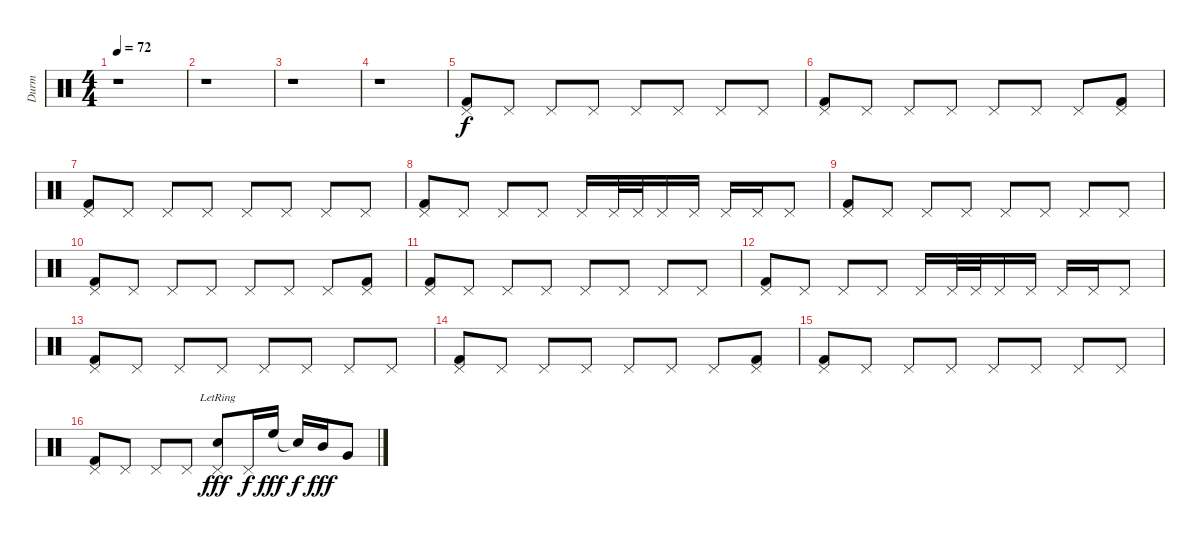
\track ("Durm" "Durm") {instrument percussion}
\staff {score}
\articulation defaults
\ts (4 4)
\tempo 72
\clef neutral
\ks c
r.1{dy f} |
r.1 |
r.1 |
r.1 |
("Pedal Hi-Hat (hit)" "Kick (hit) 2").8 "Pedal Hi-Hat (hit)".8 "Pedal Hi-Hat (hit)".8 "Pedal Hi-Hat (hit)".8 "Pedal Hi-Hat (hit)".8 "Pedal Hi-Hat (hit)".8 "Pedal Hi-Hat (hit)".8 "Pedal Hi-Hat (hit)".8 |
("Pedal Hi-Hat (hit)" "Kick (hit) 2").8 "Pedal Hi-Hat (hit)".8 "Pedal Hi-Hat (hit)".8 "Pedal Hi-Hat (hit)".8 "Pedal Hi-Hat (hit)".8 "Pedal Hi-Hat (hit)".8 "Pedal Hi-Hat (hit)".8 ("Pedal Hi-Hat (hit)" "Kick (hit) 2").8 |
("Pedal Hi-Hat (hit)" "Kick (hit) 2").8 "Pedal Hi-Hat (hit)".8 "Pedal Hi-Hat (hit)".8 "Pedal Hi-Hat (hit)".8 "Pedal Hi-Hat (hit)".8 "Pedal Hi-Hat (hit)".8 "Pedal Hi-Hat (hit)".8 "Pedal Hi-Hat (hit)".8 |
("Pedal Hi-Hat (hit)" "Kick (hit) 2").8 "Pedal Hi-Hat (hit)".8 "Pedal Hi-Hat (hit)".8 "Pedal Hi-Hat (hit)".8 "Pedal Hi-Hat (hit)".16 "Pedal Hi-Hat (hit)".32 "Pedal Hi-Hat (hit)".32 "Pedal Hi-Hat (hit)".16 "Pedal Hi-Hat (hit)".16 "Pedal Hi-Hat (hit)".16 "Pedal Hi-Hat (hit)".16 "Pedal Hi-Hat (hit)".8 |
("Pedal Hi-Hat (hit)" "Kick (hit) 2").8 "Pedal Hi-Hat (hit)".8 "Pedal Hi-Hat (hit)".8 "Pedal Hi-Hat (hit)".8 "Pedal Hi-Hat (hit)".8 "Pedal Hi-Hat (hit)".8 "Pedal Hi-Hat (hit)".8 "Pedal Hi-Hat (hit)".8 |
("Pedal Hi-Hat (hit)" "Kick (hit) 2").8 "Pedal Hi-Hat (hit)".8 "Pedal Hi-Hat (hit)".8 "Pedal Hi-Hat (hit)".8 "Pedal Hi-Hat (hit)".8 "Pedal Hi-Hat (hit)".8 "Pedal Hi-Hat (hit)".8 ("Pedal Hi-Hat (hit)" "Kick (hit) 2").8 |
("Pedal Hi-Hat (hit)" "Kick (hit) 2").8 "Pedal Hi-Hat (hit)".8 "Pedal Hi-Hat (hit)".8 "Pedal Hi-Hat (hit)".8 "Pedal Hi-Hat (hit)".8 "Pedal Hi-Hat (hit)".8 "Pedal Hi-Hat (hit)".8 "Pedal Hi-Hat (hit)".8 |
("Pedal Hi-Hat (hit)" "Kick (hit) 2").8 "Pedal Hi-Hat (hit)".8 "Pedal Hi-Hat (hit)".8 "Pedal Hi-Hat (hit)".8 "Pedal Hi-Hat (hit)".16 "Pedal Hi-Hat (hit)".32 "Pedal Hi-Hat (hit)".32 "Pedal Hi-Hat (hit)".16 "Pedal Hi-Hat (hit)".16 "Pedal Hi-Hat (hit)".16 "Pedal Hi-Hat (hit)".16 "Pedal Hi-Hat (hit)".8 |
("Pedal Hi-Hat (hit)" "Kick (hit) 2").8 "Pedal Hi-Hat (hit)".8 "Pedal Hi-Hat (hit)".8 "Pedal Hi-Hat (hit)".8 "Pedal Hi-Hat (hit)".8 "Pedal Hi-Hat (hit)".8 "Pedal Hi-Hat (hit)".8 "Pedal Hi-Hat (hit)".8 |
("Pedal Hi-Hat (hit)" "Kick (hit) 2").8 "Pedal Hi-Hat (hit)".8 "Pedal Hi-Hat (hit)".8 "Pedal Hi-Hat (hit)".8 "Pedal Hi-Hat (hit)".8 "Pedal Hi-Hat (hit)".8 "Pedal Hi-Hat (hit)".8 ("Pedal Hi-Hat (hit)" "Kick (hit) 2").8 |
("Pedal Hi-Hat (hit)" "Kick (hit) 2").8 "Pedal Hi-Hat (hit)".8 "Pedal Hi-Hat (hit)".8 "Pedal Hi-Hat (hit)".8 "Pedal Hi-Hat (hit)".8 "Pedal Hi-Hat (hit)".8 "Pedal Hi-Hat (hit)".8 "Pedal Hi-Hat (hit)".8 |
("Pedal Hi-Hat (hit)" "Kick (hit) 2").8 "Pedal Hi-Hat (hit)".8 "Pedal Hi-Hat (hit)".8 "Pedal Hi-Hat (hit)".8 ("Pedal Hi-Hat (hit)" "Electric Snare (hit)"{lr}).8{dy fff} "Pedal Hi-Hat (hit)".16{dy f} "High Floor Tom (hit)".16{dy fff} "Snare (hit)"{t}.16{dy f} "Mid Tom (hit)".16{dy fff} "Very Low Tom (hit)".8
